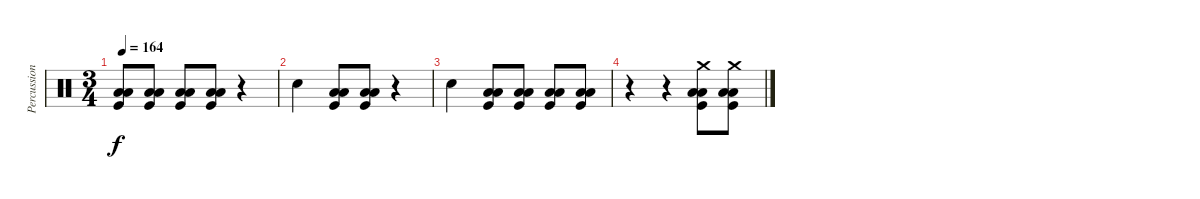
\track ("Percussion" "Percussion") {instrument percussion}
\staff {score}
\articulation defaults
\ts (3 4)
\tempo 164
\clef neutral
\ks c
("Kick (hit)" "Low Floor Tom (hit)" "Low Floor Tom (hit)").8{dy f} ("Kick (hit)" "Low Floor Tom (hit)" "Low Floor Tom (hit)").8 ("Kick (hit)" "Low Floor Tom (hit)" "Low Floor Tom (hit)").8 ("Kick (hit)" "Low Floor Tom (hit)" "Low Floor Tom (hit)").8 r.4 |
"Electric Snare (hit)".4 ("Kick (hit)" "Low Floor Tom (hit)" "Low Floor Tom (hit)").8 ("Kick (hit)" "Low Floor Tom (hit)" "Low Floor Tom (hit)").8 r.4 |
"Electric Snare (hit)".4 ("Kick (hit)" "Low Floor Tom (hit)" "Low Floor Tom (hit)").8 ("Kick (hit)" "Low Floor Tom (hit)" "Low Floor Tom (hit)").8 ("Kick (hit)" "Low Floor Tom (hit)" "Low Floor Tom (hit)").8 ("Kick (hit)" "Low Floor Tom (hit)" "Low Floor Tom (hit)").8 |
r.4 r.4 ("Kick (hit)" "Low Floor Tom (hit)" "Low Floor Tom (hit)" "Crash medium (hit)").8 ("Kick (hit)" "Low Floor Tom (hit)" "Low Floor Tom (hit)" "Crash medium (hit)").8
